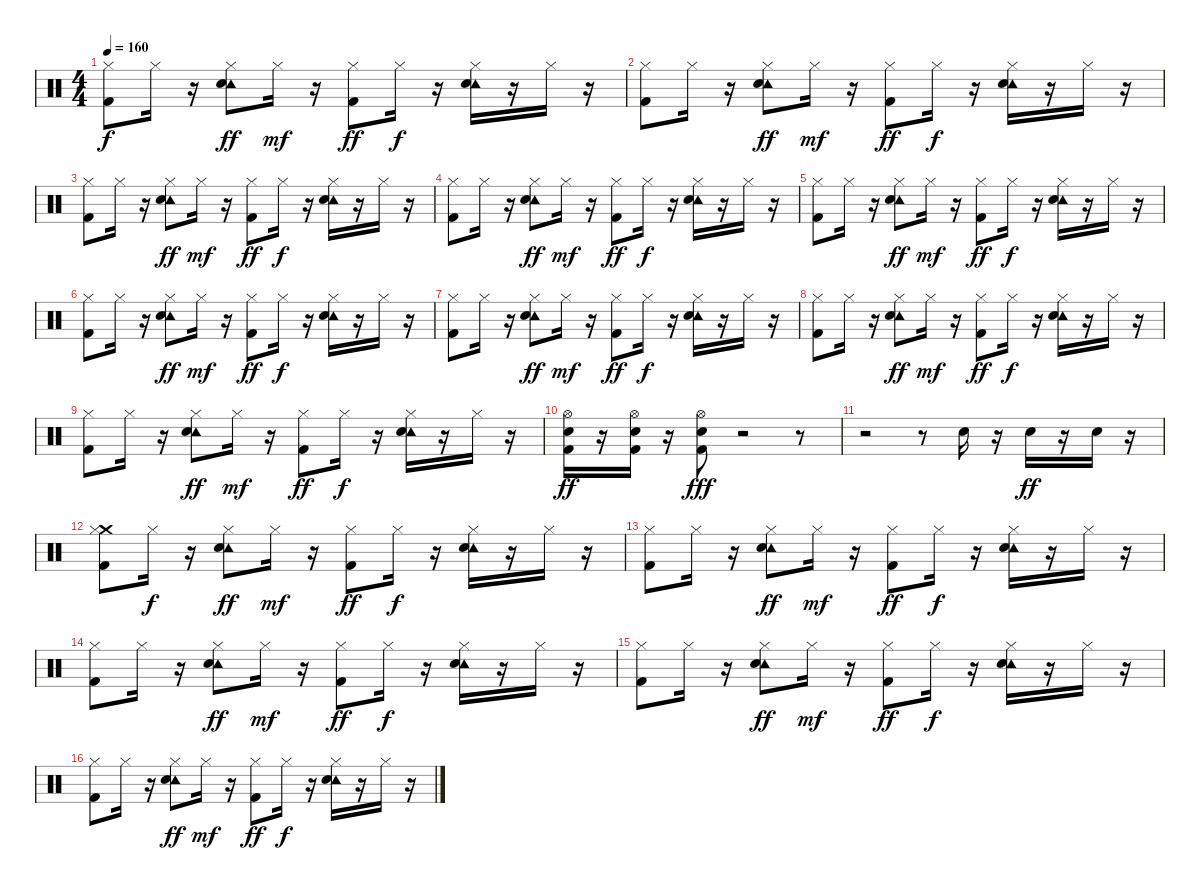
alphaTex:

\track "" {instrument percussion}
\staff {score}
\articulation defaults
\ts (4 4)
\tempo 160
\clef neutral
\ks c
("Hi-Hat (closed)" "Kick (hit) 2").8{dy f} "Hi-Hat (closed)".16 r.16 ("Tambourine (hit)" "Hi-Hat (closed)" "Snare (hit) 2").8{dy ff} "Hi-Hat (closed)".16{dy mf} r.16 ("Hi-Hat (closed)" "Kick (hit) 2").8{dy ff} "Hi-Hat (closed)".16{dy f} r.16 ("Tambourine (hit)" "Hi-Hat (closed)" "Snare (hit) 2").16 r.16 "Hi-Hat (closed)".16 r.16 |
("Hi-Hat (closed)" "Kick (hit) 2").8 "Hi-Hat (closed)".16 r.16 ("Tambourine (hit)" "Hi-Hat (closed)" "Snare (hit) 2").8{dy ff} "Hi-Hat (closed)".16{dy mf} r.16 ("Hi-Hat (closed)" "Kick (hit) 2").8{dy ff} "Hi-Hat (closed)".16{dy f} r.16 ("Tambourine (hit)" "Hi-Hat (closed)" "Snare (hit) 2").16 r.16 "Hi-Hat (closed)".16 r.16 |
("Hi-Hat (closed)" "Kick (hit) 2").8 "Hi-Hat (closed)".16 r.16 ("Tambourine (hit)" "Hi-Hat (closed)" "Snare (hit) 2").8{dy ff} "Hi-Hat (closed)".16{dy mf} r.16 ("Hi-Hat (closed)" "Kick (hit) 2").8{dy ff} "Hi-Hat (closed)".16{dy f} r.16 ("Tambourine (hit)" "Hi-Hat (closed)" "Snare (hit) 2").16 r.16 "Hi-Hat (closed)".16 r.16 |
("Hi-Hat (closed)" "Kick (hit) 2").8 "Hi-Hat (closed)".16 r.16 ("Tambourine (hit)" "Hi-Hat (closed)" "Snare (hit) 2").8{dy ff} "Hi-Hat (closed)".16{dy mf} r.16 ("Hi-Hat (closed)" "Kick (hit) 2").8{dy ff} "Hi-Hat (closed)".16{dy f} r.16 ("Tambourine (hit)" "Hi-Hat (closed)" "Snare (hit) 2").16 r.16 "Hi-Hat (closed)".16 r.16 |
("Hi-Hat (closed)" "Kick (hit) 2").8 "Hi-Hat (closed)".16 r.16 ("Tambourine (hit)" "Hi-Hat (closed)" "Snare (hit) 2").8{dy ff} "Hi-Hat (closed)".16{dy mf} r.16 ("Hi-Hat (closed)" "Kick (hit) 2").8{dy ff} "Hi-Hat (closed)".16{dy f} r.16 ("Tambourine (hit)" "Hi-Hat (closed)" "Snare (hit) 2").16 r.16 "Hi-Hat (closed)".16 r.16 |
("Hi-Hat (closed)" "Kick (hit) 2").8 "Hi-Hat (closed)".16 r.16 ("Tambourine (hit)" "Hi-Hat (closed)" "Snare (hit) 2").8{dy ff} "Hi-Hat (closed)".16{dy mf} r.16 ("Hi-Hat (closed)" "Kick (hit) 2").8{dy ff} "Hi-Hat (closed)".16{dy f} r.16 ("Tambourine (hit)" "Hi-Hat (closed)" "Snare (hit) 2").16 r.16 "Hi-Hat (closed)".16 r.16 |
("Hi-Hat (closed)" "Kick (hit) 2").8 "Hi-Hat (closed)".16 r.16 ("Tambourine (hit)" "Hi-Hat (closed)" "Snare (hit) 2").8{dy ff} "Hi-Hat (closed)".16{dy mf} r.16 ("Hi-Hat (closed)" "Kick (hit) 2").8{dy ff} "Hi-Hat (closed)".16{dy f} r.16 ("Tambourine (hit)" "Hi-Hat (closed)" "Snare (hit) 2").16 r.16 "Hi-Hat (closed)".16 r.16 |
("Hi-Hat (closed)" "Kick (hit) 2").8 "Hi-Hat (closed)".16 r.16 ("Tambourine (hit)" "Hi-Hat (closed)" "Snare (hit) 2").8{dy ff} "Hi-Hat (closed)".16{dy mf} r.16 ("Hi-Hat (closed)" "Kick (hit) 2").8{dy ff} "Hi-Hat (closed)".16{dy f} r.16 ("Tambourine (hit)" "Hi-Hat (closed)" "Snare (hit) 2").16 r.16 "Hi-Hat (closed)".16 r.16 |
("Hi-Hat (closed)" "Kick (hit) 2").8 "Hi-Hat (closed)".16 r.16 ("Tambourine (hit)" "Hi-Hat (closed)" "Snare (hit) 2").8{dy ff} "Hi-Hat (closed)".16{dy mf} r.16 ("Hi-Hat (closed)" "Kick (hit) 2").8{dy ff} "Hi-Hat (closed)".16{dy f} r.16 ("Tambourine (hit)" "Hi-Hat (closed)" "Snare (hit) 2").16 r.16 "Hi-Hat (closed)".16 r.16 |
("Hi-Hat (open)" "Snare (hit) 2" "Kick (hit) 2").16{dy ff} r.16 ("Snare (hit) 2" "Kick (hit) 2" "Hi-Hat (open)").16 r.16 ("Snare (hit) 2" "Kick (hit) 2" "Hi-Hat (open)").8{dy fff} r.2 r.8 |
r.2 r.8 "Snare (hit) 2".16 r.16 "Snare (hit) 2".16{dy ff} r.16 "Snare (hit) 2".16 r.16 |
("Crash medium (hit)" "Hi-Hat (closed)" "Kick (hit) 2").8 "Hi-Hat (closed)".16{dy f} r.16 ("Tambourine (hit)" "Hi-Hat (closed)" "Snare (hit) 2").8{dy ff} "Hi-Hat (closed)".16{dy mf} r.16 ("Hi-Hat (closed)" "Kick (hit) 2").8{dy ff} "Hi-Hat (closed)".16{dy f} r.16 ("Tambourine (hit)" "Hi-Hat (closed)" "Snare (hit) 2").16 r.16 "Hi-Hat (closed)".16 r.16 |
("Hi-Hat (closed)" "Kick (hit) 2").8 "Hi-Hat (closed)".16 r.16 ("Tambourine (hit)" "Hi-Hat (closed)" "Snare (hit) 2").8{dy ff} "Hi-Hat (closed)".16{dy mf} r.16 ("Hi-Hat (closed)" "Kick (hit) 2").8{dy ff} "Hi-Hat (closed)".16{dy f} r.16 ("Tambourine (hit)" "Hi-Hat (closed)" "Snare (hit) 2").16 r.16 "Hi-Hat (closed)".16 r.16 |
("Hi-Hat (closed)" "Kick (hit) 2").8 "Hi-Hat (closed)".16 r.16 ("Tambourine (hit)" "Hi-Hat (closed)" "Snare (hit) 2").8{dy ff} "Hi-Hat (closed)".16{dy mf} r.16 ("Hi-Hat (closed)" "Kick (hit) 2").8{dy ff} "Hi-Hat (closed)".16{dy f} r.16 ("Tambourine (hit)" "Hi-Hat (closed)" "Snare (hit) 2").16 r.16 "Hi-Hat (closed)".16 r.16 |
("Hi-Hat (closed)" "Kick (hit) 2").8 "Hi-Hat (closed)".16 r.16 ("Tambourine (hit)" "Hi-Hat (closed)" "Snare (hit) 2").8{dy ff} "Hi-Hat (closed)".16{dy mf} r.16 ("Hi-Hat (closed)" "Kick (hit) 2").8{dy ff} "Hi-Hat (closed)".16{dy f} r.16 ("Tambourine (hit)" "Hi-Hat (closed)" "Snare (hit) 2").16 r.16 "Hi-Hat (closed)".16 r.16 |
("Hi-Hat (closed)" "Kick (hit) 2").8 "Hi-Hat (closed)".16 r.16 ("Tambourine (hit)" "Hi-Hat (closed)" "Snare (hit) 2").8{dy ff} "Hi-Hat (closed)".16{dy mf} r.16 ("Hi-Hat (closed)" "Kick (hit) 2").8{dy ff} "Hi-Hat (closed)".16{dy f} r.16 ("Tambourine (hit)" "Hi-Hat (closed)" "Snare (hit) 2").16 r.16 "Hi-Hat (closed)".16 r.16
